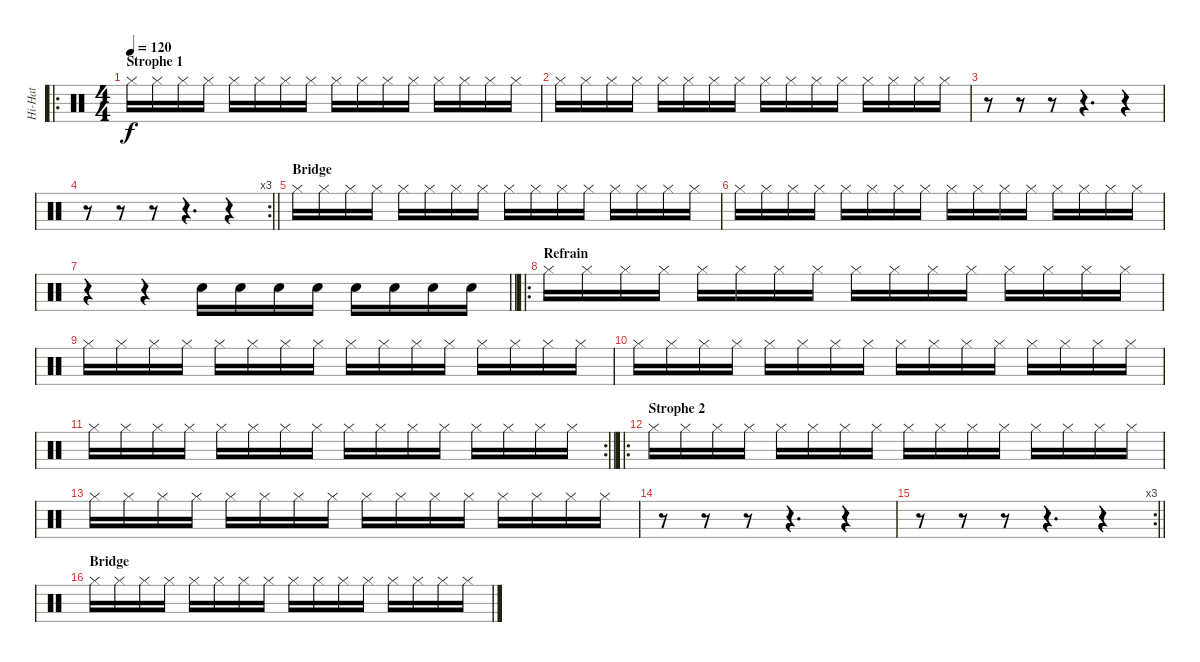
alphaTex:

\track ("Hi-Hat" "Hi-Hat") {instrument percussion}
\staff {score}
\articulation defaults
\ro
\ts (4 4)
\section ("" "Strophe 1")
\tempo 120
\clef neutral
\ks c "Hi-Hat (closed)".16{dy f} "Hi-Hat (closed)".16 "Hi-Hat (closed)".16 "Hi-Hat (closed)".16 "Hi-Hat (closed)".16 "Hi-Hat (closed)".16 "Hi-Hat (closed)".16 "Hi-Hat (closed)".16 "Hi-Hat (closed)".16 "Hi-Hat (closed)".16 "Hi-Hat (closed)".16 "Hi-Hat (closed)".16 "Hi-Hat (closed)".16 "Hi-Hat (closed)".16 "Hi-Hat (closed)".16 "Hi-Hat (closed)".16
|
"Hi-Hat (closed)".16 "Hi-Hat (closed)".16 "Hi-Hat (closed)".16 "Hi-Hat (closed)".16 "Hi-Hat (closed)".16 "Hi-Hat (closed)".16 "Hi-Hat (closed)".16 "Hi-Hat (closed)".16 "Hi-Hat (closed)".16 "Hi-Hat (closed)".16 "Hi-Hat (closed)".16 "Hi-Hat (closed)".16 "Hi-Hat (closed)".16 "Hi-Hat (closed)".16 "Hi-Hat (closed)".16 "Hi-Hat (closed)".16 |
r.8 r.8 r.8 r.4{d} r.4 |
\rc 3
\barLineRight lightlight
r.8 r.8 r.8 r.4{d} r.4 |
\section ("" "Bridge")
"Hi-Hat (closed)".16 "Hi-Hat (closed)".16 "Hi-Hat (closed)".16 "Hi-Hat (closed)".16 "Hi-Hat (closed)".16 "Hi-Hat (closed)".16 "Hi-Hat (closed)".16 "Hi-Hat (closed)".16 "Hi-Hat (closed)".16 "Hi-Hat (closed)".16 "Hi-Hat (closed)".16 "Hi-Hat (closed)".16 "Hi-Hat (closed)".16 "Hi-Hat (closed)".16 "Hi-Hat (closed)".16 "Hi-Hat (closed)".16 |
"Hi-Hat (closed)".16 "Hi-Hat (closed)".16 "Hi-Hat (closed)".16 "Hi-Hat (closed)".16 "Hi-Hat (closed)".16 "Hi-Hat (closed)".16 "Hi-Hat (closed)".16 "Hi-Hat (closed)".16 "Hi-Hat (closed)".16 "Hi-Hat (closed)".16 "Hi-Hat (closed)".16 "Hi-Hat (closed)".16 "Hi-Hat (closed)".16 "Hi-Hat (closed)".16 "Hi-Hat (closed)".16 "Hi-Hat (closed)".16 |
\barLineRight lightlight
r.4 r.4 "Electric Snare (hit)".16 "Electric Snare (hit)".16 "Electric Snare (hit)".16 "Electric Snare (hit)".16 "Electric Snare (hit)".16 "Electric Snare (hit)".16 "Electric Snare (hit)".16 "Electric Snare (hit)".16 |
\ro
\section ("" "Refrain")
"Hi-Hat (closed)".16 "Hi-Hat (closed)".16 "Hi-Hat (closed)".16 "Hi-Hat (closed)".16 "Hi-Hat (closed)".16 "Hi-Hat (closed)".16 "Hi-Hat (closed)".16 "Hi-Hat (closed)".16 "Hi-Hat (closed)".16 "Hi-Hat (closed)".16 "Hi-Hat (closed)".16 "Hi-Hat (closed)".16 "Hi-Hat (closed)".16 "Hi-Hat (closed)".16 "Hi-Hat (closed)".16 "Hi-Hat (closed)".16 |
"Hi-Hat (closed)".16 "Hi-Hat (closed)".16 "Hi-Hat (closed)".16 "Hi-Hat (closed)".16 "Hi-Hat (closed)".16 "Hi-Hat (closed)".16 "Hi-Hat (closed)".16 "Hi-Hat (closed)".16 "Hi-Hat (closed)".16 "Hi-Hat (closed)".16 "Hi-Hat (closed)".16 "Hi-Hat (closed)".16 "Hi-Hat (closed)".16 "Hi-Hat (closed)".16 "Hi-Hat (closed)".16 "Hi-Hat (closed)".16 |
"Hi-Hat (closed)".16 "Hi-Hat (closed)".16 "Hi-Hat (closed)".16 "Hi-Hat (closed)".16 "Hi-Hat (closed)".16 "Hi-Hat (closed)".16 "Hi-Hat (closed)".16 "Hi-Hat (closed)".16 "Hi-Hat (closed)".16 "Hi-Hat (closed)".16 "Hi-Hat (closed)".16 "Hi-Hat (closed)".16 "Hi-Hat (closed)".16 "Hi-Hat (closed)".16 "Hi-Hat (closed)".16 "Hi-Hat (closed)".16 |
\rc 2
\barLineRight lightlight "Hi-Hat (closed)".16 "Hi-Hat (closed)".16 "Hi-Hat (closed)".16 "Hi-Hat (closed)".16 "Hi-Hat (closed)".16 "Hi-Hat (closed)".16 "Hi-Hat (closed)".16 "Hi-Hat (closed)".16 "Hi-Hat (closed)".16 "Hi-Hat (closed)".16 "Hi-Hat (closed)".16 "Hi-Hat (closed)".16 "Hi-Hat (closed)".16 "Hi-Hat (closed)".16 "Hi-Hat (closed)".16 "Hi-Hat (closed)".16
|
\ro
\section ("" "Strophe 2")
"Hi-Hat (closed)".16 "Hi-Hat (closed)".16 "Hi-Hat (closed)".16 "Hi-Hat (closed)".16 "Hi-Hat (closed)".16 "Hi-Hat (closed)".16 "Hi-Hat (closed)".16 "Hi-Hat (closed)".16 "Hi-Hat (closed)".16 "Hi-Hat (closed)".16 "Hi-Hat (closed)".16 "Hi-Hat (closed)".16 "Hi-Hat (closed)".16 "Hi-Hat (closed)".16 "Hi-Hat (closed)".16 "Hi-Hat (closed)".16 |
"Hi-Hat (closed)".16 "Hi-Hat (closed)".16 "Hi-Hat (closed)".16 "Hi-Hat (closed)".16 "Hi-Hat (closed)".16 "Hi-Hat (closed)".16 "Hi-Hat (closed)".16 "Hi-Hat (closed)".16 "Hi-Hat (closed)".16 "Hi-Hat (closed)".16 "Hi-Hat (closed)".16 "Hi-Hat (closed)".16 "Hi-Hat (closed)".16 "Hi-Hat (closed)".16 "Hi-Hat (closed)".16 "Hi-Hat (closed)".16 |
r.8 r.8 r.8 r.4{d} r.4 |
\rc 3
\barLineRight lightlight
r.8 r.8 r.8 r.4{d} r.4 |
\section ("" "Bridge")
"Hi-Hat (closed)".16 "Hi-Hat (closed)".16 "Hi-Hat (closed)".16 "Hi-Hat (closed)".16 "Hi-Hat (closed)".16 "Hi-Hat (closed)".16 "Hi-Hat (closed)".16 "Hi-Hat (closed)".16 "Hi-Hat (closed)".16 "Hi-Hat (closed)".16 "Hi-Hat (closed)".16 "Hi-Hat (closed)".16 "Hi-Hat (closed)".16 "Hi-Hat (closed)".16 "Hi-Hat (closed)".16 "Hi-Hat (closed)".16
